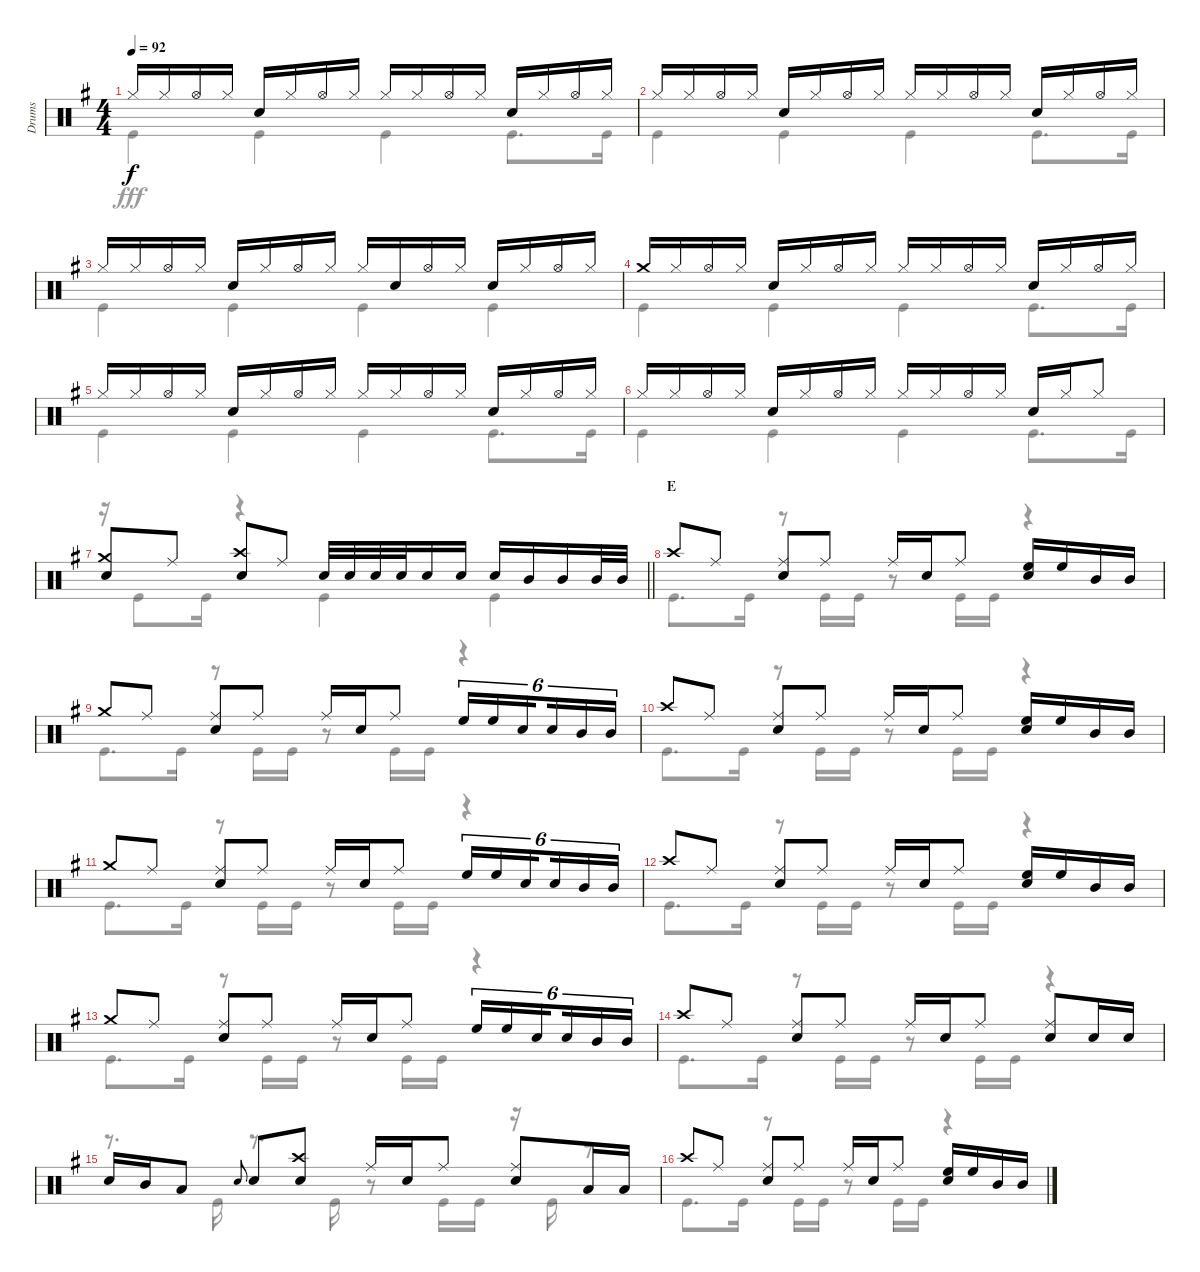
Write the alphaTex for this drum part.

\track ("Drums" "Drums") {instrument percussion}
\staff {score}
\articulation defaults
\voice
\ts (4 4)
\tempo 92
\clef neutral
\ks g "Hi-Hat (closed)".16{dy f} "Hi-Hat (closed)".16 "Hi-Hat (open)".16 "Hi-Hat (closed)".16 "Snare (hit) 2".16 "Hi-Hat (closed)".16 "Hi-Hat (open)".16 "Hi-Hat (closed)".16 "Hi-Hat (closed)".16 "Hi-Hat (closed)".16 "Hi-Hat (open)".16 "Hi-Hat (closed)".16 "Snare (hit) 2".16 "Hi-Hat (closed)".16 "Hi-Hat (open)".16 "Hi-Hat (closed)".16
|
"Hi-Hat (closed)".16 "Hi-Hat (closed)".16 "Hi-Hat (open)".16 "Hi-Hat (closed)".16 "Snare (hit) 2".16 "Hi-Hat (closed)".16 "Hi-Hat (open)".16 "Hi-Hat (closed)".16 "Hi-Hat (closed)".16 "Hi-Hat (closed)".16 "Hi-Hat (open)".16 "Hi-Hat (closed)".16 "Snare (hit) 2".16 "Hi-Hat (closed)".16 "Hi-Hat (open)".16 "Hi-Hat (closed)".16 |
"Hi-Hat (closed)".16 "Hi-Hat (closed)".16 "Hi-Hat (open)".16 "Hi-Hat (closed)".16 "Snare (hit) 2".16 "Hi-Hat (closed)".16 "Hi-Hat (open)".16 "Hi-Hat (closed)".16 "Hi-Hat (closed)".16 "Snare (hit) 2".16 "Hi-Hat (open)".16 "Hi-Hat (closed)".16 "Snare (hit) 2".16 "Hi-Hat (closed)".16 "Hi-Hat (open)".16 "Hi-Hat (closed)".16 |
"Crash medium (hit)".16 "Hi-Hat (closed)".16 "Hi-Hat (open)".16 "Hi-Hat (closed)".16 "Snare (hit) 2".16 "Hi-Hat (closed)".16 "Hi-Hat (open)".16 "Hi-Hat (closed)".16 "Hi-Hat (closed)".16 "Hi-Hat (closed)".16 "Hi-Hat (open)".16 "Hi-Hat (closed)".16 "Snare (hit) 2".16 "Hi-Hat (closed)".16 "Hi-Hat (open)".16 "Hi-Hat (closed)".16 |
"Hi-Hat (closed)".16 "Hi-Hat (closed)".16 "Hi-Hat (open)".16 "Hi-Hat (closed)".16 "Snare (hit) 2".16 "Hi-Hat (closed)".16 "Hi-Hat (open)".16 "Hi-Hat (closed)".16 "Hi-Hat (closed)".16 "Hi-Hat (closed)".16 "Hi-Hat (open)".16 "Hi-Hat (closed)".16 "Snare (hit) 2".16 "Hi-Hat (closed)".16 "Hi-Hat (open)".16 "Hi-Hat (closed)".16 |
"Hi-Hat (closed)".16 "Hi-Hat (closed)".16 "Hi-Hat (open)".16 "Hi-Hat (closed)".16 "Snare (hit) 2".16 "Hi-Hat (closed)".16 "Hi-Hat (open)".16 "Hi-Hat (closed)".16 "Hi-Hat (closed)".16 "Hi-Hat (closed)".16 "Hi-Hat (open)".16 "Hi-Hat (closed)".16 "Snare (hit) 2".16 "Hi-Hat (closed)".16 "Hi-Hat (closed)".8 |
\barLineRight lightlight
("Crash medium (hit)" "Snare (hit) 2").8 "Ride (middle)".8 ("Crash high (hit)" "Snare (hit) 2").8 "Ride (middle)".8 "Snare (hit) 2".32 "Snare (hit) 2".32 "Snare (hit) 2".32 "Snare (hit) 2".32 "Snare (hit) 2".16 "Snare (hit) 2".16 "Snare (hit) 2".16 "Mid Tom (hit)".16 "Mid Tom (hit)".16 "Mid Tom (hit)".32 "Mid Tom (hit)".32 |
\section ("" "E")
"Crash high (hit)".8 "Ride (middle)".8 ("Ride (middle)" "Snare (hit) 2").8 "Ride (middle)".8 "Ride (middle)".16 "Snare (hit) 2".16 "Ride (middle)".8 ("High Floor Tom (hit)" "Snare (hit) 2").16 "High Floor Tom (hit)".16 "Mid Tom (hit)".16 "Mid Tom (hit)".16 |
"Crash medium (hit)".8 "Ride (middle)".8 ("Snare (hit) 2" "Ride (middle)").8 "Ride (middle)".8 "Ride (middle)".16 "Snare (hit) 2".16 "Ride (middle)".8 "High Floor Tom (hit)".16{tu (6 4)} "High Floor Tom (hit)".16{tu (6 4)} "Snare (hit) 2".16{tu (6 4) beam splitsecondary} "Snare (hit) 2".16{tu (6 4)} "Mid Tom (hit)".16{tu (6 4)} "Mid Tom (hit)".16{tu (6 4)} |
"Crash high (hit)".8 "Ride (middle)".8 ("Ride (middle)" "Snare (hit) 2").8 "Ride (middle)".8 "Ride (middle)".16 "Snare (hit) 2".16 "Ride (middle)".8 ("High Floor Tom (hit)" "Snare (hit) 2").16 "High Floor Tom (hit)".16 "Mid Tom (hit)".16 "Mid Tom (hit)".16 |
"Crash medium (hit)".8 "Ride (middle)".8 ("Snare (hit) 2" "Ride (middle)").8 "Ride (middle)".8 "Ride (middle)".16 "Snare (hit) 2".16 "Ride (middle)".8 "High Floor Tom (hit)".16{tu (6 4)} "High Floor Tom (hit)".16{tu (6 4)} "Snare (hit) 2".16{tu (6 4) beam splitsecondary} "Snare (hit) 2".16{tu (6 4)} "Mid Tom (hit)".16{tu (6 4)} "Mid Tom (hit)".16{tu (6 4)} |
"Crash high (hit)".8 "Ride (middle)".8 ("Ride (middle)" "Snare (hit) 2").8 "Ride (middle)".8 "Ride (middle)".16 "Snare (hit) 2".16 "Ride (middle)".8 ("High Floor Tom (hit)" "Snare (hit) 2").16 "High Floor Tom (hit)".16 "Mid Tom (hit)".16 "Mid Tom (hit)".16 |
"Crash medium (hit)".8 "Ride (middle)".8 ("Snare (hit) 2" "Ride (middle)").8 "Ride (middle)".8 "Ride (middle)".16 "Snare (hit) 2".16 "Ride (middle)".8 "High Floor Tom (hit)".16{tu (6 4)} "High Floor Tom (hit)".16{tu (6 4)} "Snare (hit) 2".16{tu (6 4) beam splitsecondary} "Snare (hit) 2".16{tu (6 4)} "Mid Tom (hit)".16{tu (6 4)} "Mid Tom (hit)".16{tu (6 4)} |
"Crash high (hit)".8 "Ride (middle)".8 ("Ride (middle)" "Snare (hit) 2").8 "Ride (middle)".8 "Ride (middle)".16 "Snare (hit) 2".16 "Ride (middle)".8 ("Ride (middle)" "Snare (hit) 2").8 "Snare (hit) 2".16 "Snare (hit) 2".16 |
"Snare (hit) 2".16 "Mid Tom (hit)".16 "Low Tom (hit)".8 "Snare (hit) 2".8{gr onbeat} "Snare (hit) 2".8 ("Snare (hit) 2" "Crash high (hit)").8 "Ride (middle)".16 "Snare (hit) 2".16 "Ride (middle)".8 ("Ride (middle)" "Snare (hit) 2").8 "Low Tom (hit)".16 "Low Tom (hit)".16 |
"Crash high (hit)".8 "Ride (middle)".8 ("Snare (hit) 2" "Ride (middle)").8 "Ride (middle)".8 "Ride (middle)".16 "Snare (hit) 2".16 "Ride (middle)".8 ("High Floor Tom (hit)" "Snare (hit) 2").16 "High Floor Tom (hit)".16 "Mid Tom (hit)".16 "Mid Tom (hit)".16
\voice
\clef neutral
\ottava regular
\simile none
\ks g "Kick (hit)".4{dy fff} "Kick (hit)".4 "Kick (hit)".4 "Kick (hit)".8{d} "Kick (hit)".16
|
"Kick (hit)".4 "Kick (hit)".4 "Kick (hit)".4 "Kick (hit)".8{d} "Kick (hit)".16 |
"Kick (hit)".4 "Kick (hit)".4 "Kick (hit)".4 "Kick (hit)".4 |
"Kick (hit)".4 "Kick (hit)".4 "Kick (hit)".4 "Kick (hit)".8{d} "Kick (hit)".16 |
"Kick (hit)".4 "Kick (hit)".4 "Kick (hit)".4 "Kick (hit)".8{d} "Kick (hit)".16 |
"Kick (hit)".4 "Kick (hit)".4 "Kick (hit)".4 "Kick (hit)".8{d} "Kick (hit)".16 |
\barLineRight lightlight
r.16 "Kick (hit)".8 "Kick (hit)".16 r.4 "Kick (hit)".4 "Kick (hit)".4 |
"Kick (hit)".8{d} "Kick (hit)".16 r.8 "Kick (hit)".16 "Kick (hit)".16 r.8 "Kick (hit)".16 "Kick (hit)".16 r.4 |
"Kick (hit)".8{d} "Kick (hit)".16 r.8 "Kick (hit)".16 "Kick (hit)".16 r.8 "Kick (hit)".16 "Kick (hit)".16 r.4 |
"Kick (hit)".8{d} "Kick (hit)".16 r.8 "Kick (hit)".16 "Kick (hit)".16 r.8 "Kick (hit)".16 "Kick (hit)".16 r.4 |
"Kick (hit)".8{d} "Kick (hit)".16 r.8 "Kick (hit)".16 "Kick (hit)".16 r.8 "Kick (hit)".16 "Kick (hit)".16 r.4 |
"Kick (hit)".8{d} "Kick (hit)".16 r.8 "Kick (hit)".16 "Kick (hit)".16 r.8 "Kick (hit)".16 "Kick (hit)".16 r.4 |
"Kick (hit)".8{d} "Kick (hit)".16 r.8 "Kick (hit)".16 "Kick (hit)".16 r.8 "Kick (hit)".16 "Kick (hit)".16 r.4 |
"Kick (hit)".8{d} "Kick (hit)".16 r.8 "Kick (hit)".16 "Kick (hit)".16 r.8 "Kick (hit)".16 "Kick (hit)".16 r.4 |
r.8{d} "Kick (hit)".16 r.8{d} "Kick (hit)".16 r.8 "Kick (hit)".16 "Kick (hit)".16 r.16 "Kick (hit)".16 r.8 |
"Kick (hit)".8{d} "Kick (hit)".16 r.8 "Kick (hit)".16 "Kick (hit)".16 r.8 "Kick (hit)".16 "Kick (hit)".16 r.4
